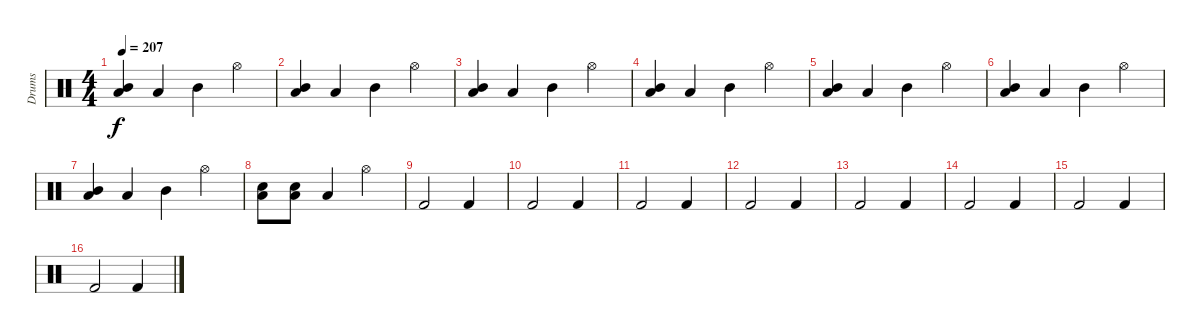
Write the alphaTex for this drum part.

\track ("Drums" "Drums") {instrument percussion}
\staff {score}
\articulation defaults
\ts (4 4)
\tempo 207
\clef neutral
\ks c
("Low Tom (hit)" "Mid Tom (hit)").4{dy f} "Low Tom (hit)".4 "Mid Tom (hit)".4 "Hi-Hat (open)".4 |
("Low Tom (hit)" "Mid Tom (hit)").4 "Low Tom (hit)".4 "Mid Tom (hit)".4 "Hi-Hat (open)".4 |
("Low Tom (hit)" "Mid Tom (hit)").4 "Low Tom (hit)".4 "Mid Tom (hit)".4 "Hi-Hat (open)".4 |
("Low Tom (hit)" "Mid Tom (hit)").4 "Low Tom (hit)".4 "Mid Tom (hit)".4 "Hi-Hat (open)".4 |
("Low Tom (hit)" "Mid Tom (hit)").4 "Low Tom (hit)".4 "Mid Tom (hit)".4 "Hi-Hat (open)".4 |
("Low Tom (hit)" "Mid Tom (hit)").4 "Low Tom (hit)".4 "Mid Tom (hit)".4 "Hi-Hat (open)".4 |
("Low Tom (hit)" "Mid Tom (hit)").4 "Low Tom (hit)".4 "Mid Tom (hit)".4 "Hi-Hat (open)".4 |
("Low Tom (hit)" "Snare (hit) 2").8 ("Low Tom (hit)" "Snare (hit) 2").8 "Low Tom (hit)".4 "Hi-Hat (open)".4 |
"Kick (hit) 2".2 "Kick (hit) 2".4 |
"Kick (hit) 2".2 "Kick (hit) 2".4 |
"Kick (hit) 2".2 "Kick (hit) 2".4 |
"Kick (hit) 2".2 "Kick (hit) 2".4 |
"Kick (hit) 2".2 "Kick (hit) 2".4 |
"Kick (hit) 2".2 "Kick (hit) 2".4 |
"Kick (hit) 2".2 "Kick (hit) 2".4 |
"Kick (hit) 2".2 "Kick (hit) 2".4
